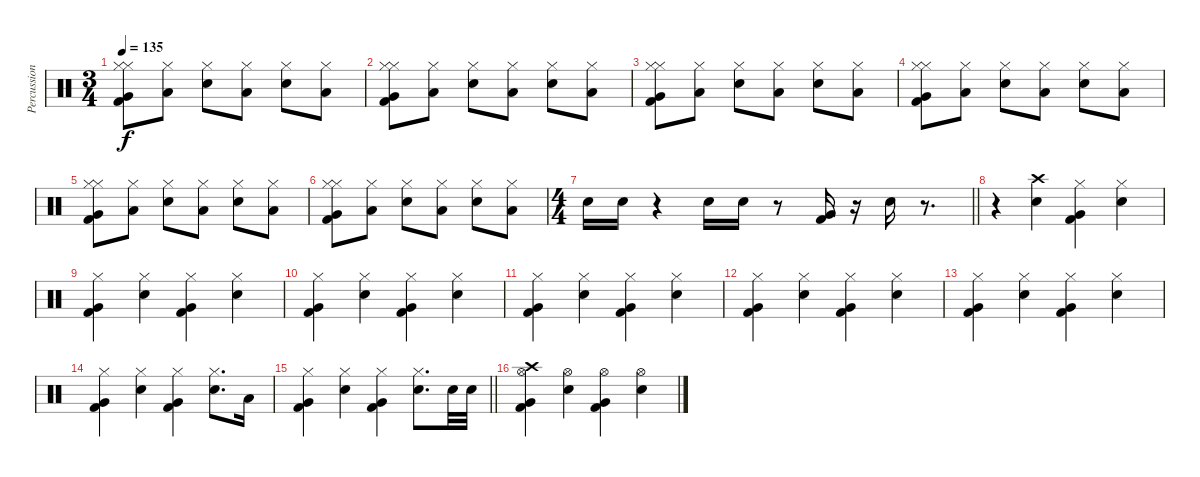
\track ("Percussion" "Percussion") {instrument percussion}
\staff {score}
\articulation defaults
\ts (3 4)
\tempo 135
\clef neutral
\ks c
("Hi-Hat (closed)" "Hi-Hat (closed)" "Very Low Tom (hit)" "Kick (hit) 2").8{dy f} ("Hi-Hat (closed)" "Low Tom (hit)").8 ("Hi-Hat (closed)" "Electric Snare (hit)").8 ("Hi-Hat (closed)" "Low Tom (hit)").8 ("Hi-Hat (closed)" "Electric Snare (hit)").8 ("Hi-Hat (closed)" "Low Tom (hit)").8 |
("Hi-Hat (closed)" "Hi-Hat (closed)" "Very Low Tom (hit)" "Kick (hit) 2").8 ("Hi-Hat (closed)" "Low Tom (hit)").8 ("Hi-Hat (closed)" "Electric Snare (hit)").8 ("Hi-Hat (closed)" "Low Tom (hit)").8 ("Hi-Hat (closed)" "Electric Snare (hit)").8 ("Hi-Hat (closed)" "Low Tom (hit)").8 |
("Hi-Hat (closed)" "Hi-Hat (closed)" "Very Low Tom (hit)" "Kick (hit) 2").8 ("Hi-Hat (closed)" "Low Tom (hit)").8 ("Hi-Hat (closed)" "Electric Snare (hit)").8 ("Hi-Hat (closed)" "Low Tom (hit)").8 ("Hi-Hat (closed)" "Electric Snare (hit)").8 ("Hi-Hat (closed)" "Low Tom (hit)").8 |
("Hi-Hat (closed)" "Hi-Hat (closed)" "Very Low Tom (hit)" "Kick (hit) 2").8 ("Hi-Hat (closed)" "Low Tom (hit)").8 ("Hi-Hat (closed)" "Electric Snare (hit)").8 ("Hi-Hat (closed)" "Low Tom (hit)").8 ("Hi-Hat (closed)" "Electric Snare (hit)").8 ("Hi-Hat (closed)" "Low Tom (hit)").8 |
("Hi-Hat (closed)" "Hi-Hat (closed)" "Very Low Tom (hit)" "Kick (hit) 2").8 ("Hi-Hat (closed)" "Low Tom (hit)").8 ("Hi-Hat (closed)" "Electric Snare (hit)").8 ("Hi-Hat (closed)" "Low Tom (hit)").8 ("Hi-Hat (closed)" "Electric Snare (hit)").8 ("Hi-Hat (closed)" "Low Tom (hit)").8 |
("Hi-Hat (closed)" "Hi-Hat (closed)" "Very Low Tom (hit)" "Kick (hit) 2").8 ("Hi-Hat (closed)" "Low Tom (hit)").8 ("Hi-Hat (closed)" "Electric Snare (hit)").8 ("Hi-Hat (closed)" "Low Tom (hit)").8 ("Hi-Hat (closed)" "Electric Snare (hit)").8 ("Hi-Hat (closed)" "Low Tom (hit)").8 |
\ts (4 4)
\barLineRight lightlight "Electric Snare (hit)".16 "Electric Snare (hit)".16
r.4 "Electric Snare (hit)".16 "Electric Snare (hit)".16 r.8 ("Very Low Tom (hit)" "Kick (hit) 2").16 r.16 "Electric Snare (hit)".16 r.8{d} |
r.4 ("Crash high (hit)" "Electric Snare (hit)").4 ("Hi-Hat (closed)" "Very Low Tom (hit)" "Kick (hit) 2").4 ("Hi-Hat (closed)" "Electric Snare (hit)").4 |
("Hi-Hat (closed)" "Very Low Tom (hit)" "Kick (hit) 2").4 ("Hi-Hat (closed)" "Electric Snare (hit)").4 ("Hi-Hat (closed)" "Very Low Tom (hit)" "Kick (hit) 2").4 ("Hi-Hat (closed)" "Electric Snare (hit)").4 |
("Hi-Hat (closed)" "Very Low Tom (hit)" "Kick (hit) 2").4 ("Hi-Hat (closed)" "Electric Snare (hit)").4 ("Hi-Hat (closed)" "Very Low Tom (hit)" "Kick (hit) 2").4 ("Hi-Hat (closed)" "Electric Snare (hit)").4 |
("Hi-Hat (closed)" "Very Low Tom (hit)" "Kick (hit) 2").4 ("Hi-Hat (closed)" "Electric Snare (hit)").4 ("Hi-Hat (closed)" "Very Low Tom (hit)" "Kick (hit) 2").4 ("Hi-Hat (closed)" "Electric Snare (hit)").4 |
("Hi-Hat (closed)" "Very Low Tom (hit)" "Kick (hit) 2").4 ("Hi-Hat (closed)" "Electric Snare (hit)").4 ("Hi-Hat (closed)" "Very Low Tom (hit)" "Kick (hit) 2").4 ("Hi-Hat (closed)" "Electric Snare (hit)").4 |
("Hi-Hat (closed)" "Very Low Tom (hit)" "Kick (hit) 2").4 ("Hi-Hat (closed)" "Electric Snare (hit)").4 ("Hi-Hat (closed)" "Very Low Tom (hit)" "Kick (hit) 2").4 ("Hi-Hat (closed)" "Electric Snare (hit)").4 |
("Hi-Hat (closed)" "Very Low Tom (hit)" "Kick (hit) 2").4 ("Hi-Hat (closed)" "Electric Snare (hit)").4 ("Hi-Hat (closed)" "Very Low Tom (hit)" "Kick (hit) 2").4 ("Hi-Hat (closed)" "Electric Snare (hit)").8{d} "Low Tom (hit)".16 |
\barLineRight lightlight
("Hi-Hat (closed)" "Very Low Tom (hit)" "Kick (hit) 2").4 ("Hi-Hat (closed)" "Electric Snare (hit)").4 ("Hi-Hat (closed)" "Very Low Tom (hit)" "Kick (hit) 2").4 ("Hi-Hat (closed)" "Electric Snare (hit)").8{d} "Electric Snare (hit)".32 "Electric Snare (hit)".32 |
("Hi-Hat (open)" "Crash high (hit)" "Very Low Tom (hit)" "Kick (hit) 2").4 ("Hi-Hat (open)" "Electric Snare (hit)").4 ("Hi-Hat (open)" "Very Low Tom (hit)" "Kick (hit) 2").4 ("Hi-Hat (open)" "Electric Snare (hit)").4
